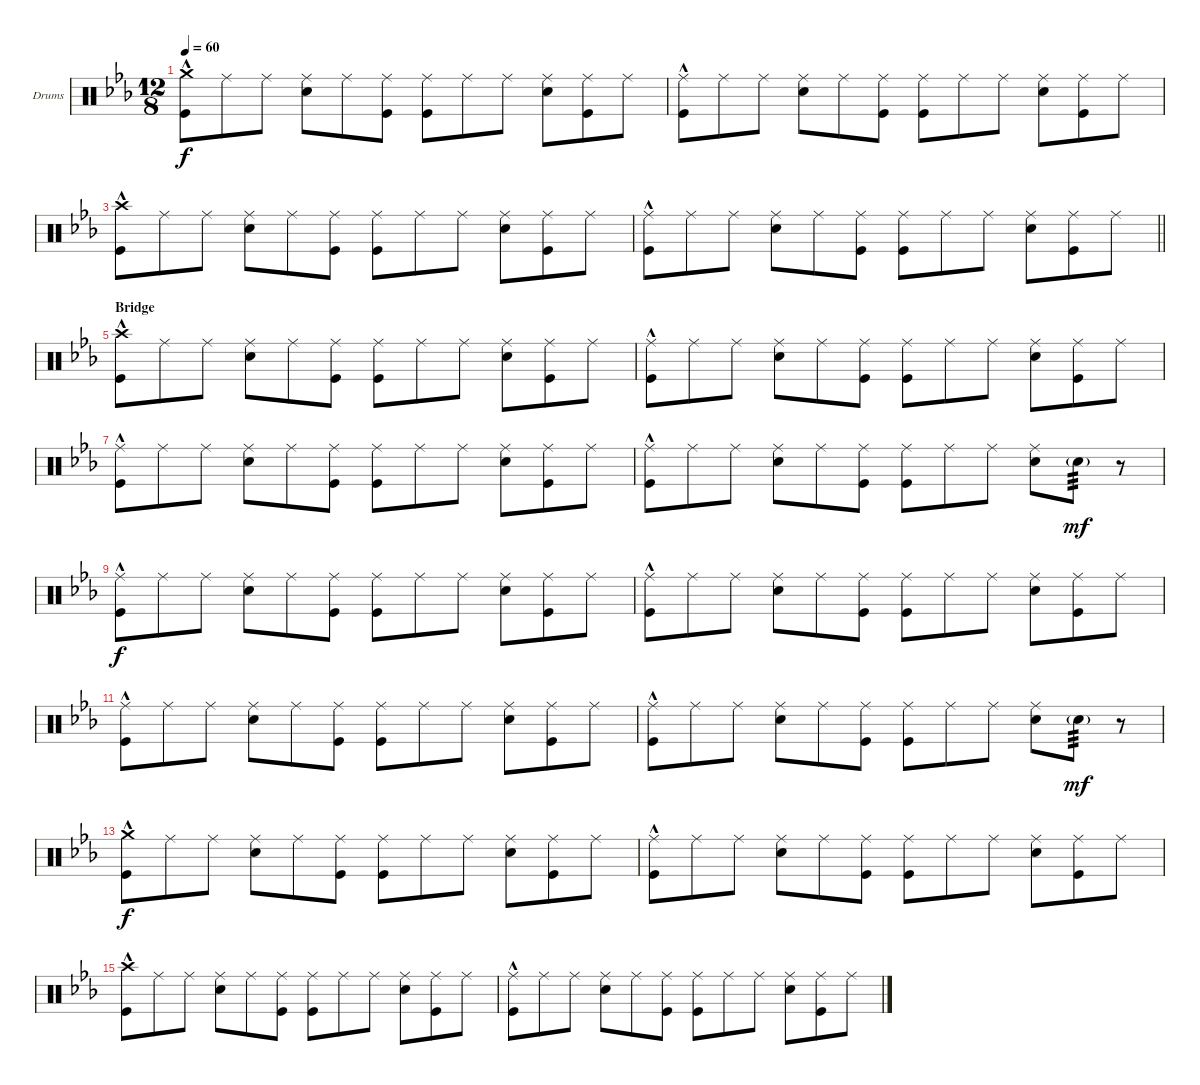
\bracketExtendMode nobrackets
\firstSystemTrackNameOrientation horizontal
\otherSystemsTrackNameOrientation horizontal
\defaultBarNumberDisplay FirstOfSystem
\track ("Drumkit" "Drums") {instrument percussion}
\staff {score}
\articulation defaults
\ts (12 8)
\tempo 60
\clef neutral
\scale
0.333333
\ks cminor
("Crash medium (hit)" "Kick (hit)"{hac}).8{dy f} "Ride (middle)".8 "Ride (middle)".8 ("Ride (middle)" "Snare (hit) 2").8 "Ride (middle)".8 ("Ride (middle)" "Kick (hit)").8 ("Ride (middle)" "Kick (hit)").8 "Ride (middle)".8 "Ride (middle)".8 ("Ride (middle)" "Snare (hit) 2").8 ("Ride (middle)" "Kick (hit)").8 "Ride (middle)".8 |
\scale
0.333333 ("Ride (middle)" "Kick (hit)"{hac}).8 "Ride (middle)".8 "Ride (middle)".8 ("Ride (middle)" "Snare (hit) 2").8 "Ride (middle)".8 ("Ride (middle)" "Kick (hit)").8 ("Ride (middle)" "Kick (hit)").8 "Ride (middle)".8 "Ride (middle)".8 ("Ride (middle)" "Snare (hit) 2").8 ("Ride (middle)" "Kick (hit)").8 "Ride (middle)".8 |
\scale
0.333333 ("Crash high (hit)" "Kick (hit)"{hac}).8 "Ride (middle)".8 "Ride (middle)".8 ("Ride (middle)" "Snare (hit) 2").8 "Ride (middle)".8 ("Ride (middle)" "Kick (hit)").8 ("Ride (middle)" "Kick (hit)").8 "Ride (middle)".8 "Ride (middle)".8 ("Ride (middle)" "Snare (hit) 2").8 ("Ride (middle)" "Kick (hit)").8 "Ride (middle)".8 |
\scale
0.333333
\barLineRight lightlight
("Ride (middle)" "Kick (hit)"{hac}).8 "Ride (middle)".8 "Ride (middle)".8 ("Ride (middle)" "Snare (hit) 2").8 "Ride (middle)".8 ("Ride (middle)" "Kick (hit)").8 ("Ride (middle)" "Kick (hit)").8 "Ride (middle)".8 "Ride (middle)".8 ("Ride (middle)" "Snare (hit) 2").8 ("Ride (middle)" "Kick (hit)").8 "Ride (middle)".8 |
\section ("" "Bridge")
\scale
0.333333 ("Crash high (hit)" "Kick (hit)"{hac}).8 "Ride (middle)".8 "Ride (middle)".8 ("Ride (middle)" "Snare (hit) 2").8 "Ride (middle)".8 ("Ride (middle)" "Kick (hit)").8 ("Ride (middle)" "Kick (hit)").8 "Ride (middle)".8 "Ride (middle)".8 ("Ride (middle)" "Snare (hit) 2").8 ("Ride (middle)" "Kick (hit)").8 "Ride (middle)".8 |
\scale
0.333333 ("Ride (middle)" "Kick (hit)"{hac}).8 "Ride (middle)".8 "Ride (middle)".8 ("Ride (middle)" "Snare (hit) 2").8 "Ride (middle)".8 ("Ride (middle)" "Kick (hit)").8 ("Ride (middle)" "Kick (hit)").8 "Ride (middle)".8 "Ride (middle)".8 ("Ride (middle)" "Snare (hit) 2").8 ("Ride (middle)" "Kick (hit)").8 "Ride (middle)".8 |
\scale
0.333333 ("Ride (middle)" "Kick (hit)"{hac}).8 "Ride (middle)".8 "Ride (middle)".8 ("Ride (middle)" "Snare (hit) 2").8 "Ride (middle)".8 ("Ride (middle)" "Kick (hit)").8 ("Ride (middle)" "Kick (hit)").8 "Ride (middle)".8 "Ride (middle)".8 ("Ride (middle)" "Snare (hit) 2").8 ("Ride (middle)" "Kick (hit)").8 "Ride (middle)".8 |
\scale
0.333333 ("Ride (middle)" "Kick (hit)"{hac}).8 "Ride (middle)".8 "Ride (middle)".8 ("Ride (middle)" "Snare (hit) 2").8 "Ride (middle)".8 ("Ride (middle)" "Kick (hit)").8 ("Ride (middle)" "Kick (hit)").8 "Ride (middle)".8 "Ride (middle)".8 ("Ride (middle)" "Snare (hit) 2").8 "Snare (hit) 2"{g}.8{tp 3 dy mf} r.8 |
\scale
0.333333 ("Ride (middle)" "Kick (hit)"{hac}).8{dy f} "Ride (middle)".8 "Ride (middle)".8 ("Ride (middle)" "Snare (hit) 2").8 "Ride (middle)".8 ("Ride (middle)" "Kick (hit)").8 ("Ride (middle)" "Kick (hit)").8 "Ride (middle)".8 "Ride (middle)".8 ("Ride (middle)" "Snare (hit) 2").8 ("Ride (middle)" "Kick (hit)").8 "Ride (middle)".8 |
\scale
0.333333 ("Ride (middle)" "Kick (hit)"{hac}).8 "Ride (middle)".8 "Ride (middle)".8 ("Ride (middle)" "Snare (hit) 2").8 "Ride (middle)".8 ("Ride (middle)" "Kick (hit)").8 ("Ride (middle)" "Kick (hit)").8 "Ride (middle)".8 "Ride (middle)".8 ("Ride (middle)" "Snare (hit) 2").8 ("Ride (middle)" "Kick (hit)").8 "Ride (middle)".8 |
\scale
0.333333 ("Ride (middle)" "Kick (hit)"{hac}).8 "Ride (middle)".8 "Ride (middle)".8 ("Ride (middle)" "Snare (hit) 2").8 "Ride (middle)".8 ("Ride (middle)" "Kick (hit)").8 ("Ride (middle)" "Kick (hit)").8 "Ride (middle)".8 "Ride (middle)".8 ("Ride (middle)" "Snare (hit) 2").8 ("Ride (middle)" "Kick (hit)").8 "Ride (middle)".8 |
\scale
0.333333 ("Ride (middle)" "Kick (hit)"{hac}).8 "Ride (middle)".8 "Ride (middle)".8 ("Ride (middle)" "Snare (hit) 2").8 "Ride (middle)".8 ("Ride (middle)" "Kick (hit)").8 ("Ride (middle)" "Kick (hit)").8 "Ride (middle)".8 "Ride (middle)".8 ("Ride (middle)" "Snare (hit) 2").8 "Snare (hit) 2"{g}.8{tp 3 dy mf} r.8 |
\scale
0.333333 ("Crash medium (hit)" "Kick (hit)"{hac}).8{dy f} "Ride (middle)".8 "Ride (middle)".8 ("Ride (middle)" "Snare (hit) 2").8 "Ride (middle)".8 ("Ride (middle)" "Kick (hit)").8 ("Ride (middle)" "Kick (hit)").8 "Ride (middle)".8 "Ride (middle)".8 ("Ride (middle)" "Snare (hit) 2").8 ("Ride (middle)" "Kick (hit)").8 "Ride (middle)".8 |
\scale
0.333333 ("Ride (middle)" "Kick (hit)"{hac}).8 "Ride (middle)".8 "Ride (middle)".8 ("Ride (middle)" "Snare (hit) 2").8 "Ride (middle)".8 ("Ride (middle)" "Kick (hit)").8 ("Ride (middle)" "Kick (hit)").8 "Ride (middle)".8 "Ride (middle)".8 ("Ride (middle)" "Snare (hit) 2").8 ("Ride (middle)" "Kick (hit)").8 "Ride (middle)".8 |
\scale
0.333333 ("Crash high (hit)" "Kick (hit)"{hac}).8 "Ride (middle)".8 "Ride (middle)".8 ("Ride (middle)" "Snare (hit) 2").8 "Ride (middle)".8 ("Ride (middle)" "Kick (hit)").8 ("Ride (middle)" "Kick (hit)").8 "Ride (middle)".8 "Ride (middle)".8 ("Ride (middle)" "Snare (hit) 2").8 ("Ride (middle)" "Kick (hit)").8 "Ride (middle)".8 |
\scale
0.333333 ("Ride (middle)" "Kick (hit)"{hac}).8 "Ride (middle)".8 "Ride (middle)".8 ("Ride (middle)" "Snare (hit) 2").8 "Ride (middle)".8 ("Ride (middle)" "Kick (hit)").8 ("Ride (middle)" "Kick (hit)").8 "Ride (middle)".8 "Ride (middle)".8 ("Ride (middle)" "Snare (hit) 2").8 ("Ride (middle)" "Kick (hit)").8 "Ride (middle)".8
